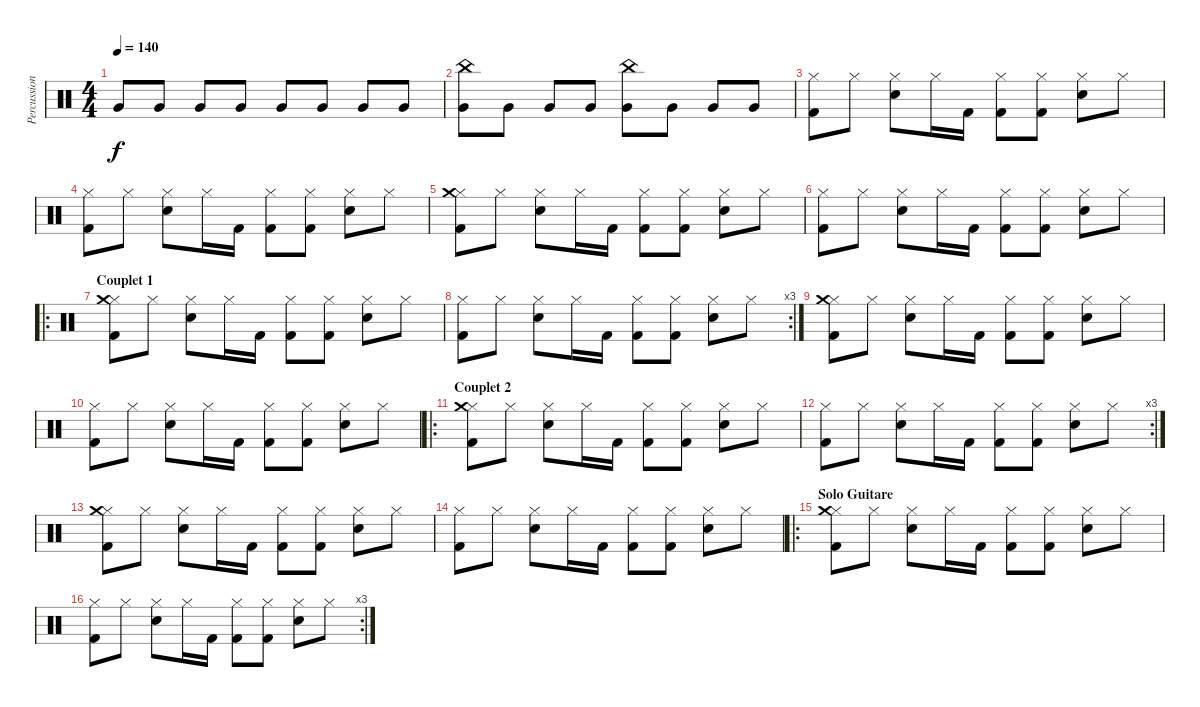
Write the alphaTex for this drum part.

\track ("Percussions" "Percussion") {instrument percussion}
\staff {score}
\articulation defaults
\ts (4 4)
\tempo 140
\clef neutral
\ks c "Very Low Tom (hit)".8{dy f} "Very Low Tom (hit)".8 "Very Low Tom (hit)".8 "Very Low Tom (hit)".8 "Very Low Tom (hit)".8 "Very Low Tom (hit)".8 "Very Low Tom (hit)".8 "Very Low Tom (hit)".8
|
("Very Low Tom (hit)" "China (hit)").8 "Very Low Tom (hit)".8 "Very Low Tom (hit)".8 "Very Low Tom (hit)".8 ("Very Low Tom (hit)" "China (hit)").8 "Very Low Tom (hit)".8 "Very Low Tom (hit)".8 "Very Low Tom (hit)".8 |
("Hi-Hat (closed)" "Kick (hit) 2").8 "Hi-Hat (closed)".8 ("Hi-Hat (closed)" "Electric Snare (hit)").8 "Hi-Hat (closed)".16 "Kick (hit) 2".16 ("Hi-Hat (closed)" "Kick (hit) 2").8 ("Hi-Hat (closed)" "Kick (hit) 2").8 ("Hi-Hat (closed)" "Electric Snare (hit)").8 "Hi-Hat (closed)".8 |
("Hi-Hat (closed)" "Kick (hit) 2").8 "Hi-Hat (closed)".8 ("Hi-Hat (closed)" "Electric Snare (hit)").8 "Hi-Hat (closed)".16 "Kick (hit) 2".16 ("Hi-Hat (closed)" "Kick (hit) 2").8 ("Hi-Hat (closed)" "Kick (hit) 2").8 ("Hi-Hat (closed)" "Electric Snare (hit)").8 "Hi-Hat (closed)".8 |
("Hi-Hat (closed)" "Crash medium (hit)" "Kick (hit) 2").8 "Hi-Hat (closed)".8 ("Hi-Hat (closed)" "Electric Snare (hit)").8 "Hi-Hat (closed)".16 "Kick (hit) 2".16 ("Hi-Hat (closed)" "Kick (hit) 2").8 ("Hi-Hat (closed)" "Kick (hit) 2").8 ("Hi-Hat (closed)" "Electric Snare (hit)").8 "Hi-Hat (closed)".8 |
("Hi-Hat (closed)" "Kick (hit) 2").8 "Hi-Hat (closed)".8 ("Hi-Hat (closed)" "Electric Snare (hit)").8 "Hi-Hat (closed)".16 "Kick (hit) 2".16 ("Hi-Hat (closed)" "Kick (hit) 2").8 ("Hi-Hat (closed)" "Kick (hit) 2").8 ("Hi-Hat (closed)" "Electric Snare (hit)").8 "Hi-Hat (closed)".8 |
\ro
\section ("" "Couplet 1")
("Hi-Hat (closed)" "Crash medium (hit)" "Kick (hit) 2").8 "Hi-Hat (closed)".8 ("Hi-Hat (closed)" "Electric Snare (hit)").8 "Hi-Hat (closed)".16 "Kick (hit) 2".16 ("Hi-Hat (closed)" "Kick (hit) 2").8 ("Hi-Hat (closed)" "Kick (hit) 2").8 ("Hi-Hat (closed)" "Electric Snare (hit)").8 "Hi-Hat (closed)".8 |
\rc 3
("Hi-Hat (closed)" "Kick (hit) 2").8 "Hi-Hat (closed)".8 ("Hi-Hat (closed)" "Electric Snare (hit)").8 "Hi-Hat (closed)".16 "Kick (hit) 2".16 ("Hi-Hat (closed)" "Kick (hit) 2").8 ("Hi-Hat (closed)" "Kick (hit) 2").8 ("Hi-Hat (closed)" "Electric Snare (hit)").8 "Hi-Hat (closed)".8 |
("Hi-Hat (closed)" "Crash medium (hit)" "Kick (hit) 2").8 "Hi-Hat (closed)".8 ("Hi-Hat (closed)" "Electric Snare (hit)").8 "Hi-Hat (closed)".16 "Kick (hit) 2".16 ("Hi-Hat (closed)" "Kick (hit) 2").8 ("Hi-Hat (closed)" "Kick (hit) 2").8 ("Hi-Hat (closed)" "Electric Snare (hit)").8 "Hi-Hat (closed)".8 |
("Hi-Hat (closed)" "Kick (hit) 2").8 "Hi-Hat (closed)".8 ("Hi-Hat (closed)" "Electric Snare (hit)").8 "Hi-Hat (closed)".16 "Kick (hit) 2".16 ("Hi-Hat (closed)" "Kick (hit) 2").8 ("Hi-Hat (closed)" "Kick (hit) 2").8 ("Hi-Hat (closed)" "Electric Snare (hit)").8 "Hi-Hat (closed)".8 |
\ro
\section ("" "Couplet 2")
("Hi-Hat (closed)" "Crash medium (hit)" "Kick (hit) 2").8 "Hi-Hat (closed)".8 ("Hi-Hat (closed)" "Electric Snare (hit)").8 "Hi-Hat (closed)".16 "Kick (hit) 2".16 ("Hi-Hat (closed)" "Kick (hit) 2").8 ("Hi-Hat (closed)" "Kick (hit) 2").8 ("Hi-Hat (closed)" "Electric Snare (hit)").8 "Hi-Hat (closed)".8 |
\rc 3
("Hi-Hat (closed)" "Kick (hit) 2").8 "Hi-Hat (closed)".8 ("Hi-Hat (closed)" "Electric Snare (hit)").8 "Hi-Hat (closed)".16 "Kick (hit) 2".16 ("Hi-Hat (closed)" "Kick (hit) 2").8 ("Hi-Hat (closed)" "Kick (hit) 2").8 ("Hi-Hat (closed)" "Electric Snare (hit)").8 "Hi-Hat (closed)".8 |
("Hi-Hat (closed)" "Crash medium (hit)" "Kick (hit) 2").8 "Hi-Hat (closed)".8 ("Hi-Hat (closed)" "Electric Snare (hit)").8 "Hi-Hat (closed)".16 "Kick (hit) 2".16 ("Hi-Hat (closed)" "Kick (hit) 2").8 ("Hi-Hat (closed)" "Kick (hit) 2").8 ("Hi-Hat (closed)" "Electric Snare (hit)").8 "Hi-Hat (closed)".8 |
("Hi-Hat (closed)" "Kick (hit) 2").8 "Hi-Hat (closed)".8 ("Hi-Hat (closed)" "Electric Snare (hit)").8 "Hi-Hat (closed)".16 "Kick (hit) 2".16 ("Hi-Hat (closed)" "Kick (hit) 2").8 ("Hi-Hat (closed)" "Kick (hit) 2").8 ("Hi-Hat (closed)" "Electric Snare (hit)").8 "Hi-Hat (closed)".8 |
\ro
\section ("" "Solo Guitare")
("Hi-Hat (closed)" "Crash medium (hit)" "Kick (hit) 2").8 "Hi-Hat (closed)".8 ("Hi-Hat (closed)" "Electric Snare (hit)").8 "Hi-Hat (closed)".16 "Kick (hit) 2".16 ("Hi-Hat (closed)" "Kick (hit) 2").8 ("Hi-Hat (closed)" "Kick (hit) 2").8 ("Hi-Hat (closed)" "Electric Snare (hit)").8 "Hi-Hat (closed)".8 |
\rc 3
("Hi-Hat (closed)" "Kick (hit) 2").8 "Hi-Hat (closed)".8 ("Hi-Hat (closed)" "Electric Snare (hit)").8 "Hi-Hat (closed)".16 "Kick (hit) 2".16 ("Hi-Hat (closed)" "Kick (hit) 2").8 ("Hi-Hat (closed)" "Kick (hit) 2").8 ("Hi-Hat (closed)" "Electric Snare (hit)").8 "Hi-Hat (closed)".8
